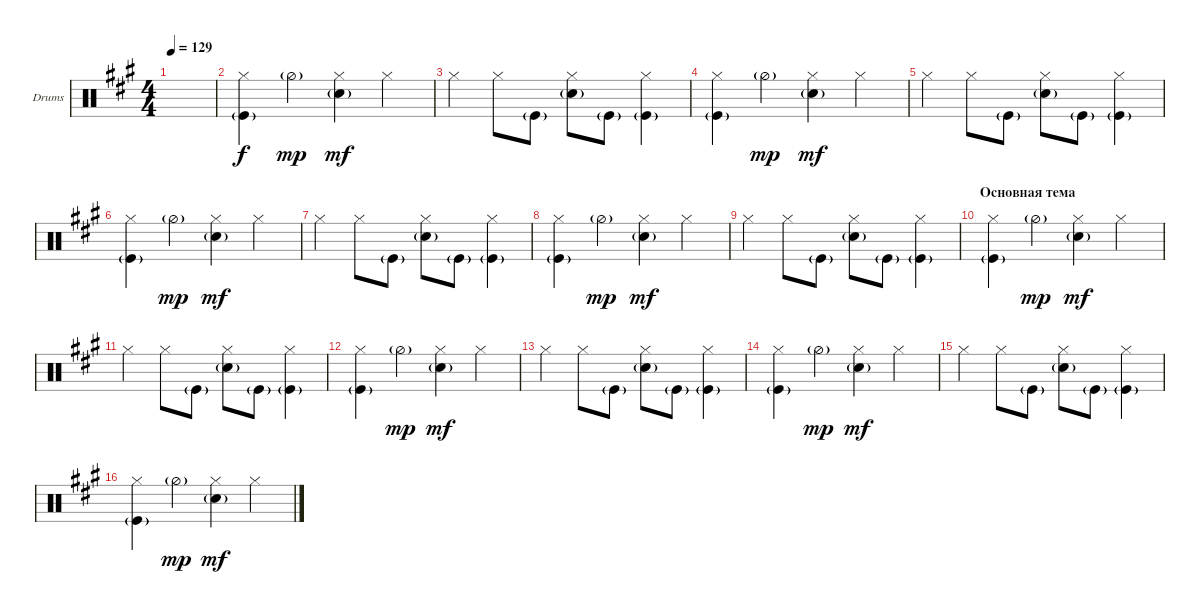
\defaultSystemsLayout 4
\bracketExtendMode groupsimilarinstruments
\firstSystemTrackNameOrientation horizontal
\otherSystemsTrackNameOrientation horizontal
\track ("Drumkit" "Drums") {instrument percussion}
\staff {score}
\articulation defaults
\ts (4 4)
\tempo 129
\clef neutral
\ks f#minor
|
("Kick (hit)"{g} "Hi-Hat (closed)").4 "Hi-Hat (half)"{g}.4{dy mp} ("Snare (hit) 2"{g} "Hi-Hat (closed)").4{dy mf} "Hi-Hat (closed)".4 |
"Hi-Hat (closed)".4 "Hi-Hat (closed)".8 "Kick (hit)"{g}.8 ("Snare (hit) 2"{g} "Hi-Hat (closed)").8 "Kick (hit)"{g}.8 ("Hi-Hat (closed)" "Kick (hit)"{g}).4 |
("Kick (hit)"{g} "Hi-Hat (closed)").4 "Hi-Hat (half)"{g}.4{dy mp} ("Snare (hit) 2"{g} "Hi-Hat (closed)").4{dy mf} "Hi-Hat (closed)".4 |
"Hi-Hat (closed)".4 "Hi-Hat (closed)".8 "Kick (hit)"{g}.8 ("Snare (hit) 2"{g} "Hi-Hat (closed)").8 "Kick (hit)"{g}.8 ("Hi-Hat (closed)" "Kick (hit)"{g}).4 |
("Kick (hit)"{g} "Hi-Hat (closed)").4 "Hi-Hat (half)"{g}.4{dy mp} ("Snare (hit) 2"{g} "Hi-Hat (closed)").4{dy mf} "Hi-Hat (closed)".4 |
"Hi-Hat (closed)".4 "Hi-Hat (closed)".8 "Kick (hit)"{g}.8 ("Snare (hit) 2"{g} "Hi-Hat (closed)").8 "Kick (hit)"{g}.8 ("Hi-Hat (closed)" "Kick (hit)"{g}).4 |
("Kick (hit)"{g} "Hi-Hat (closed)").4 "Hi-Hat (half)"{g}.4{dy mp} ("Snare (hit) 2"{g} "Hi-Hat (closed)").4{dy mf} "Hi-Hat (closed)".4 |
"Hi-Hat (closed)".4 "Hi-Hat (closed)".8 "Kick (hit)"{g}.8 ("Snare (hit) 2"{g} "Hi-Hat (closed)").8 "Kick (hit)"{g}.8 ("Hi-Hat (closed)" "Kick (hit)"{g}).4 |
\section ("" "Основная тема")
("Kick (hit)"{g} "Hi-Hat (closed)").4 "Hi-Hat (half)"{g}.4{dy mp} ("Snare (hit) 2"{g} "Hi-Hat (closed)").4{dy mf} "Hi-Hat (closed)".4 |
"Hi-Hat (closed)".4 "Hi-Hat (closed)".8 "Kick (hit)"{g}.8 ("Snare (hit) 2"{g} "Hi-Hat (closed)").8 "Kick (hit)"{g}.8 ("Hi-Hat (closed)" "Kick (hit)"{g}).4 |
("Kick (hit)"{g} "Hi-Hat (closed)").4 "Hi-Hat (half)"{g}.4{dy mp} ("Snare (hit) 2"{g} "Hi-Hat (closed)").4{dy mf} "Hi-Hat (closed)".4 |
"Hi-Hat (closed)".4 "Hi-Hat (closed)".8 "Kick (hit)"{g}.8 ("Snare (hit) 2"{g} "Hi-Hat (closed)").8 "Kick (hit)"{g}.8 ("Hi-Hat (closed)" "Kick (hit)"{g}).4 |
("Kick (hit)"{g} "Hi-Hat (closed)").4 "Hi-Hat (half)"{g}.4{dy mp} ("Snare (hit) 2"{g} "Hi-Hat (closed)").4{dy mf} "Hi-Hat (closed)".4 |
"Hi-Hat (closed)".4 "Hi-Hat (closed)".8 "Kick (hit)"{g}.8 ("Snare (hit) 2"{g} "Hi-Hat (closed)").8 "Kick (hit)"{g}.8 ("Hi-Hat (closed)" "Kick (hit)"{g}).4 |
("Kick (hit)"{g} "Hi-Hat (closed)").4 "Hi-Hat (half)"{g}.4{dy mp} ("Snare (hit) 2"{g} "Hi-Hat (closed)").4{dy mf} "Hi-Hat (closed)".4
